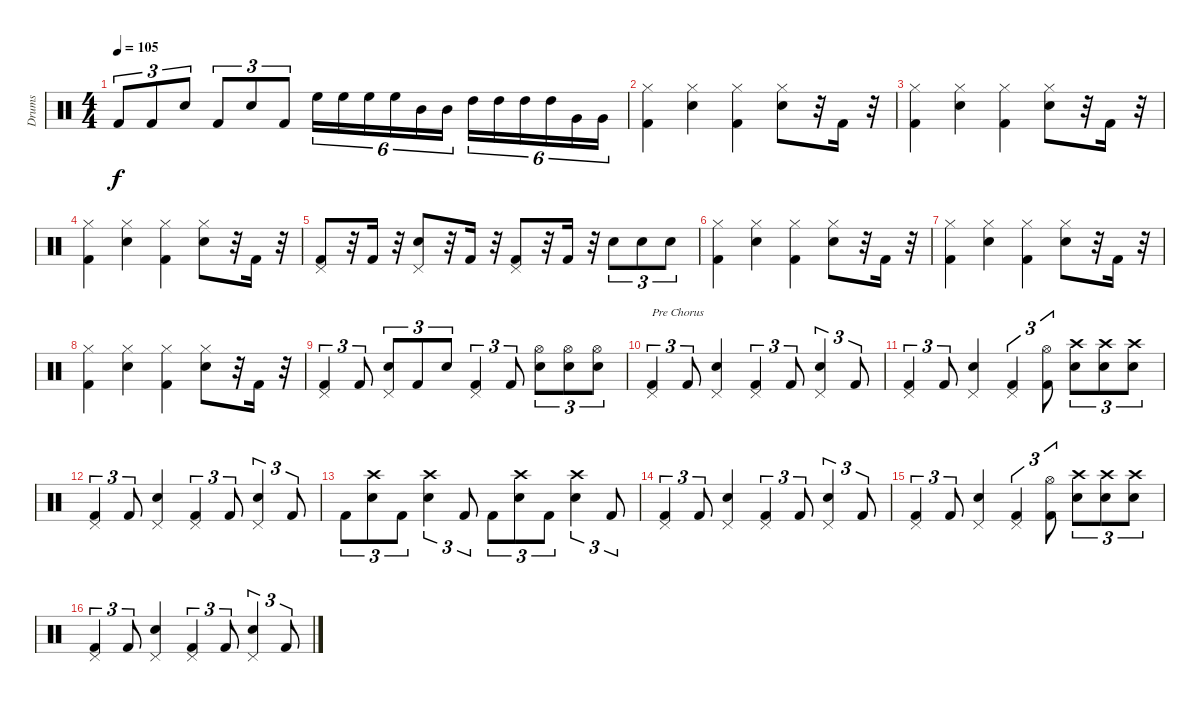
\track ("Drums" "Drums") {instrument percussion}
\staff {score}
\articulation defaults
\ts (4 4)
\tempo 105
\clef neutral
\ks c "Kick (hit) 2".8{tu (3 2) dy f} "Kick (hit) 2".8{tu (3 2)} "Snare (hit) 2".8{tu (3 2)} "Kick (hit) 2".8{tu (3 2)} "Snare (hit) 2".8{tu (3 2)} "Kick (hit) 2".8{tu (3 2)} "High Floor Tom (hit)".16{tu (6 4)} "High Floor Tom (hit)".16{tu (6 4)} "High Floor Tom (hit)".16{tu (6 4)} "High Floor Tom (hit)".16{tu (6 4)} "Mid Tom (hit)".16{tu (6 4)} "Mid Tom (hit)".16{tu (6 4)} "High Tom (hit)".16{tu (6 4)} "High Tom (hit)".16{tu (6 4)} "High Tom (hit)".16{tu (6 4)} "High Tom (hit)".16{tu (6 4)} "Very Low Tom (hit)".16{tu (6 4)} "Very Low Tom (hit)".16{tu (6 4)}
|
("Hi-Hat (closed)" "Kick (hit) 2").4 ("Hi-Hat (closed)" "Snare (hit) 2").4 ("Hi-Hat (closed)" "Kick (hit) 2").4 ("Hi-Hat (closed)" "Snare (hit) 2").8 r.32 "Kick (hit) 2".16 r.32 |
("Hi-Hat (closed)" "Kick (hit) 2").4 ("Hi-Hat (closed)" "Snare (hit) 2").4 ("Hi-Hat (closed)" "Kick (hit) 2").4 ("Hi-Hat (closed)" "Snare (hit) 2").8 r.32 "Kick (hit) 2".16 r.32 |
("Hi-Hat (closed)" "Kick (hit) 2").4 ("Hi-Hat (closed)" "Snare (hit) 2").4 ("Hi-Hat (closed)" "Kick (hit) 2").4 ("Hi-Hat (closed)" "Snare (hit) 2").8 r.32 "Kick (hit) 2".16 r.32 |
("Pedal Hi-Hat (hit)" "Kick (hit) 2").8 r.32 "Kick (hit) 2".16 r.32 ("Pedal Hi-Hat (hit)" "Snare (hit) 2").8 r.32 "Kick (hit) 2".16 r.32 ("Pedal Hi-Hat (hit)" "Kick (hit) 2").8 r.32 "Kick (hit) 2".16 r.32 "Snare (hit) 2".8{tu (3 2)} "Snare (hit) 2".8{tu (3 2)} "Snare (hit) 2".8{tu (3 2)} |
("Hi-Hat (closed)" "Kick (hit) 2").4 ("Hi-Hat (closed)" "Snare (hit) 2").4 ("Hi-Hat (closed)" "Kick (hit) 2").4 ("Hi-Hat (closed)" "Snare (hit) 2").8 r.32 "Kick (hit) 2".16 r.32 |
("Hi-Hat (closed)" "Kick (hit) 2").4 ("Hi-Hat (closed)" "Snare (hit) 2").4 ("Hi-Hat (closed)" "Kick (hit) 2").4 ("Hi-Hat (closed)" "Snare (hit) 2").8 r.32 "Kick (hit) 2".16 r.32 |
("Hi-Hat (closed)" "Kick (hit) 2").4 ("Hi-Hat (closed)" "Snare (hit) 2").4 ("Hi-Hat (closed)" "Kick (hit) 2").4 ("Hi-Hat (closed)" "Snare (hit) 2").8 r.32 "Kick (hit) 2".16 r.32 |
("Pedal Hi-Hat (hit)" "Kick (hit) 2").4{tu (3 2)} "Kick (hit) 2".8{tu (3 2)} ("Pedal Hi-Hat (hit)" "Snare (hit) 2").8{tu (3 2)} "Kick (hit) 2".8{tu (3 2)} "Snare (hit) 2".8{tu (3 2)} ("Pedal Hi-Hat (hit)" "Kick (hit) 2").4{tu (3 2)} "Kick (hit) 2".8{tu (3 2)} ("Hi-Hat (open)" "Snare (hit) 2").8{tu (3 2)} ("Hi-Hat (open)" "Snare (hit) 2").8{tu (3 2)} ("Hi-Hat (open)" "Snare (hit) 2").8{tu (3 2)} |
("Pedal Hi-Hat (hit)" "Kick (hit) 2").4{tu (3 2) txt "Pre Chorus"} "Kick (hit) 2".8{tu (3 2)} ("Pedal Hi-Hat (hit)" "Snare (hit) 2").4 ("Pedal Hi-Hat (hit)" "Kick (hit) 2").4{tu (3 2)} "Kick (hit) 2".8{tu (3 2)} ("Pedal Hi-Hat (hit)" "Snare (hit) 2").4{tu (3 2)} "Kick (hit) 2".8{tu (3 2)} |
("Pedal Hi-Hat (hit)" "Kick (hit) 2").4{tu (3 2)} "Kick (hit) 2".8{tu (3 2)} ("Pedal Hi-Hat (hit)" "Snare (hit) 2").4 ("Pedal Hi-Hat (hit)" "Kick (hit) 2").4{tu (3 2)} ("Hi-Hat (open)" "Kick (hit) 2").8{tu (3 2)} ("Crash high (hit)" "Snare (hit) 2").8{tu (3 2)} ("Crash high (hit)" "Snare (hit) 2").8{tu (3 2)} ("Crash high (hit)" "Snare (hit) 2").8{tu (3 2)} |
("Pedal Hi-Hat (hit)" "Kick (hit) 2").4{tu (3 2)} "Kick (hit) 2".8{tu (3 2)} ("Pedal Hi-Hat (hit)" "Snare (hit) 2").4 ("Pedal Hi-Hat (hit)" "Kick (hit) 2").4{tu (3 2)} "Kick (hit) 2".8{tu (3 2)} ("Pedal Hi-Hat (hit)" "Snare (hit) 2").4{tu (3 2)} "Kick (hit) 2".8{tu (3 2)} |
"Kick (hit) 2".8{tu (3 2)} ("Crash high (hit)" "Snare (hit) 2").8{tu (3 2)} "Kick (hit) 2".8{tu (3 2)} ("Crash high (hit)" "Snare (hit) 2").4{tu (3 2)} "Kick (hit) 2".8{tu (3 2)} "Kick (hit) 2".8{tu (3 2)} ("Crash high (hit)" "Snare (hit) 2").8{tu (3 2)} "Kick (hit) 2".8{tu (3 2)} ("Crash high (hit)" "Snare (hit) 2").4{tu (3 2)} "Kick (hit) 2".8{tu (3 2)} |
("Pedal Hi-Hat (hit)" "Kick (hit) 2").4{tu (3 2)} "Kick (hit) 2".8{tu (3 2)} ("Pedal Hi-Hat (hit)" "Snare (hit) 2").4 ("Pedal Hi-Hat (hit)" "Kick (hit) 2").4{tu (3 2)} "Kick (hit) 2".8{tu (3 2)} ("Pedal Hi-Hat (hit)" "Snare (hit) 2").4{tu (3 2)} "Kick (hit) 2".8{tu (3 2)} |
("Pedal Hi-Hat (hit)" "Kick (hit) 2").4{tu (3 2)} "Kick (hit) 2".8{tu (3 2)} ("Pedal Hi-Hat (hit)" "Snare (hit) 2").4 ("Pedal Hi-Hat (hit)" "Kick (hit) 2").4{tu (3 2)} ("Hi-Hat (open)" "Kick (hit) 2").8{tu (3 2)} ("Crash high (hit)" "Snare (hit) 2").8{tu (3 2)} ("Crash high (hit)" "Snare (hit) 2").8{tu (3 2)} ("Crash high (hit)" "Snare (hit) 2").8{tu (3 2)} |
("Pedal Hi-Hat (hit)" "Kick (hit) 2").4{tu (3 2)} "Kick (hit) 2".8{tu (3 2)} ("Pedal Hi-Hat (hit)" "Snare (hit) 2").4 ("Pedal Hi-Hat (hit)" "Kick (hit) 2").4{tu (3 2)} "Kick (hit) 2".8{tu (3 2)} ("Pedal Hi-Hat (hit)" "Snare (hit) 2").4{tu (3 2)} "Kick (hit) 2".8{tu (3 2)}
